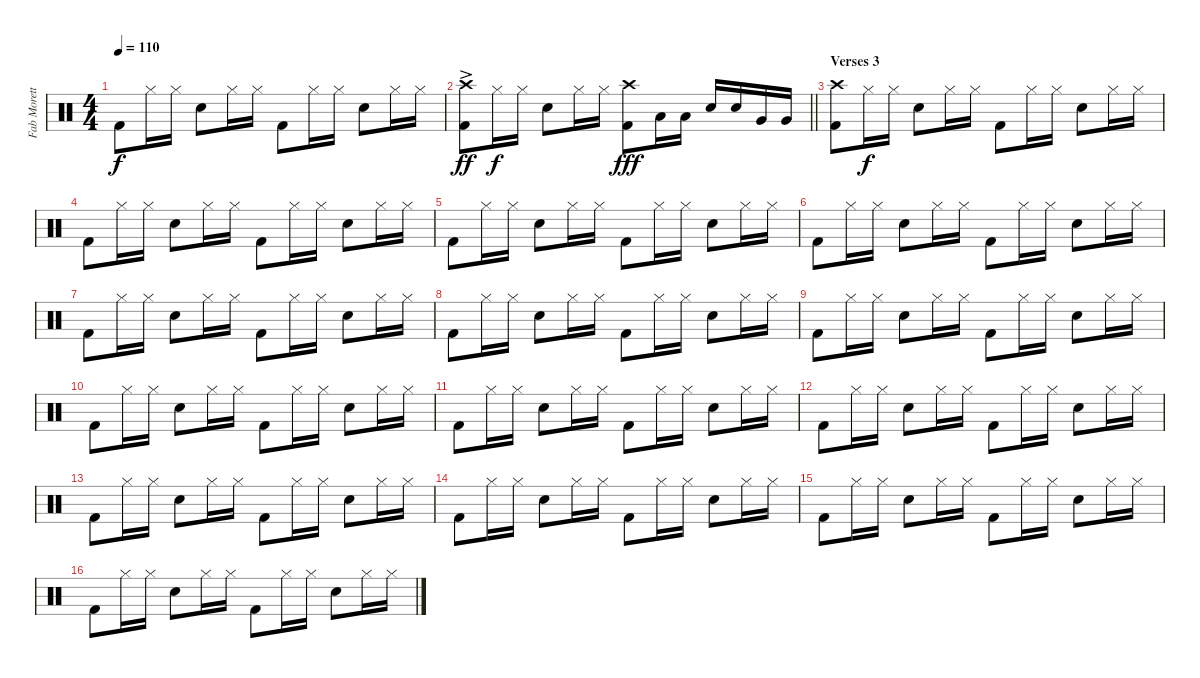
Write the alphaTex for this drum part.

\track ("Fab Moretti" "Fab Morett") {instrument percussion}
\staff {score}
\articulation defaults
\ts (4 4)
\tempo 110
\clef neutral
\ks c "Kick (hit) 2".8{dy f} "Hi-Hat (closed)".16 "Hi-Hat (closed)".16 "Electric Snare (hit)".8 "Hi-Hat (closed)".16 "Hi-Hat (closed)".16 "Kick (hit) 2".8 "Hi-Hat (closed)".16 "Hi-Hat (closed)".16 "Electric Snare (hit)".8 "Hi-Hat (closed)".16 "Hi-Hat (closed)".16
|
\barLineRight lightlight
("Kick (hit) 2" "Crash high (hit)"{ac}).8{dy ff} "Hi-Hat (closed)".16{dy f} "Hi-Hat (closed)".16 "Electric Snare (hit)".8 "Hi-Hat (closed)".16 "Hi-Hat (closed)".16 ("Kick (hit) 2" "Crash high (hit)").8{dy fff} "Low Tom (hit)".16 "Low Tom (hit)".16 "Electric Snare (hit)".16 "Electric Snare (hit)".16 "Very Low Tom (hit)".16 "Very Low Tom (hit)".16 |
\section ("" "Verses 3")
("Kick (hit) 2" "Crash high (hit)").8 "Hi-Hat (closed)".16{dy f} "Hi-Hat (closed)".16 "Electric Snare (hit)".8 "Hi-Hat (closed)".16 "Hi-Hat (closed)".16 "Kick (hit) 2".8 "Hi-Hat (closed)".16 "Hi-Hat (closed)".16 "Electric Snare (hit)".8 "Hi-Hat (closed)".16 "Hi-Hat (closed)".16 |
"Kick (hit) 2".8 "Hi-Hat (closed)".16 "Hi-Hat (closed)".16 "Electric Snare (hit)".8 "Hi-Hat (closed)".16 "Hi-Hat (closed)".16 "Kick (hit) 2".8 "Hi-Hat (closed)".16 "Hi-Hat (closed)".16 "Electric Snare (hit)".8 "Hi-Hat (closed)".16 "Hi-Hat (closed)".16 |
"Kick (hit) 2".8 "Hi-Hat (closed)".16 "Hi-Hat (closed)".16 "Electric Snare (hit)".8 "Hi-Hat (closed)".16 "Hi-Hat (closed)".16 "Kick (hit) 2".8 "Hi-Hat (closed)".16 "Hi-Hat (closed)".16 "Electric Snare (hit)".8 "Hi-Hat (closed)".16 "Hi-Hat (closed)".16 |
"Kick (hit) 2".8 "Hi-Hat (closed)".16 "Hi-Hat (closed)".16 "Electric Snare (hit)".8 "Hi-Hat (closed)".16 "Hi-Hat (closed)".16 "Kick (hit) 2".8 "Hi-Hat (closed)".16 "Hi-Hat (closed)".16 "Electric Snare (hit)".8 "Hi-Hat (closed)".16 "Hi-Hat (closed)".16 |
"Kick (hit) 2".8 "Hi-Hat (closed)".16 "Hi-Hat (closed)".16 "Electric Snare (hit)".8 "Hi-Hat (closed)".16 "Hi-Hat (closed)".16 "Kick (hit) 2".8 "Hi-Hat (closed)".16 "Hi-Hat (closed)".16 "Electric Snare (hit)".8 "Hi-Hat (closed)".16 "Hi-Hat (closed)".16 |
"Kick (hit) 2".8 "Hi-Hat (closed)".16 "Hi-Hat (closed)".16 "Electric Snare (hit)".8 "Hi-Hat (closed)".16 "Hi-Hat (closed)".16 "Kick (hit) 2".8 "Hi-Hat (closed)".16 "Hi-Hat (closed)".16 "Electric Snare (hit)".8 "Hi-Hat (closed)".16 "Hi-Hat (closed)".16 |
"Kick (hit) 2".8 "Hi-Hat (closed)".16 "Hi-Hat (closed)".16 "Electric Snare (hit)".8 "Hi-Hat (closed)".16 "Hi-Hat (closed)".16 "Kick (hit) 2".8 "Hi-Hat (closed)".16 "Hi-Hat (closed)".16 "Electric Snare (hit)".8 "Hi-Hat (closed)".16 "Hi-Hat (closed)".16 |
"Kick (hit) 2".8 "Hi-Hat (closed)".16 "Hi-Hat (closed)".16 "Electric Snare (hit)".8 "Hi-Hat (closed)".16 "Hi-Hat (closed)".16 "Kick (hit) 2".8 "Hi-Hat (closed)".16 "Hi-Hat (closed)".16 "Electric Snare (hit)".8 "Hi-Hat (closed)".16 "Hi-Hat (closed)".16 |
"Kick (hit) 2".8 "Hi-Hat (closed)".16 "Hi-Hat (closed)".16 "Electric Snare (hit)".8 "Hi-Hat (closed)".16 "Hi-Hat (closed)".16 "Kick (hit) 2".8 "Hi-Hat (closed)".16 "Hi-Hat (closed)".16 "Electric Snare (hit)".8 "Hi-Hat (closed)".16 "Hi-Hat (closed)".16 |
"Kick (hit) 2".8 "Hi-Hat (closed)".16 "Hi-Hat (closed)".16 "Electric Snare (hit)".8 "Hi-Hat (closed)".16 "Hi-Hat (closed)".16 "Kick (hit) 2".8 "Hi-Hat (closed)".16 "Hi-Hat (closed)".16 "Electric Snare (hit)".8 "Hi-Hat (closed)".16 "Hi-Hat (closed)".16 |
"Kick (hit) 2".8 "Hi-Hat (closed)".16 "Hi-Hat (closed)".16 "Electric Snare (hit)".8 "Hi-Hat (closed)".16 "Hi-Hat (closed)".16 "Kick (hit) 2".8 "Hi-Hat (closed)".16 "Hi-Hat (closed)".16 "Electric Snare (hit)".8 "Hi-Hat (closed)".16 "Hi-Hat (closed)".16 |
"Kick (hit) 2".8 "Hi-Hat (closed)".16 "Hi-Hat (closed)".16 "Electric Snare (hit)".8 "Hi-Hat (closed)".16 "Hi-Hat (closed)".16 "Kick (hit) 2".8 "Hi-Hat (closed)".16 "Hi-Hat (closed)".16 "Electric Snare (hit)".8 "Hi-Hat (closed)".16 "Hi-Hat (closed)".16 |
"Kick (hit) 2".8 "Hi-Hat (closed)".16 "Hi-Hat (closed)".16 "Electric Snare (hit)".8 "Hi-Hat (closed)".16 "Hi-Hat (closed)".16 "Kick (hit) 2".8 "Hi-Hat (closed)".16 "Hi-Hat (closed)".16 "Electric Snare (hit)".8 "Hi-Hat (closed)".16 "Hi-Hat (closed)".16 |
"Kick (hit) 2".8 "Hi-Hat (closed)".16 "Hi-Hat (closed)".16 "Electric Snare (hit)".8 "Hi-Hat (closed)".16 "Hi-Hat (closed)".16 "Kick (hit) 2".8 "Hi-Hat (closed)".16 "Hi-Hat (closed)".16 "Electric Snare (hit)".8 "Hi-Hat (closed)".16 "Hi-Hat (closed)".16
